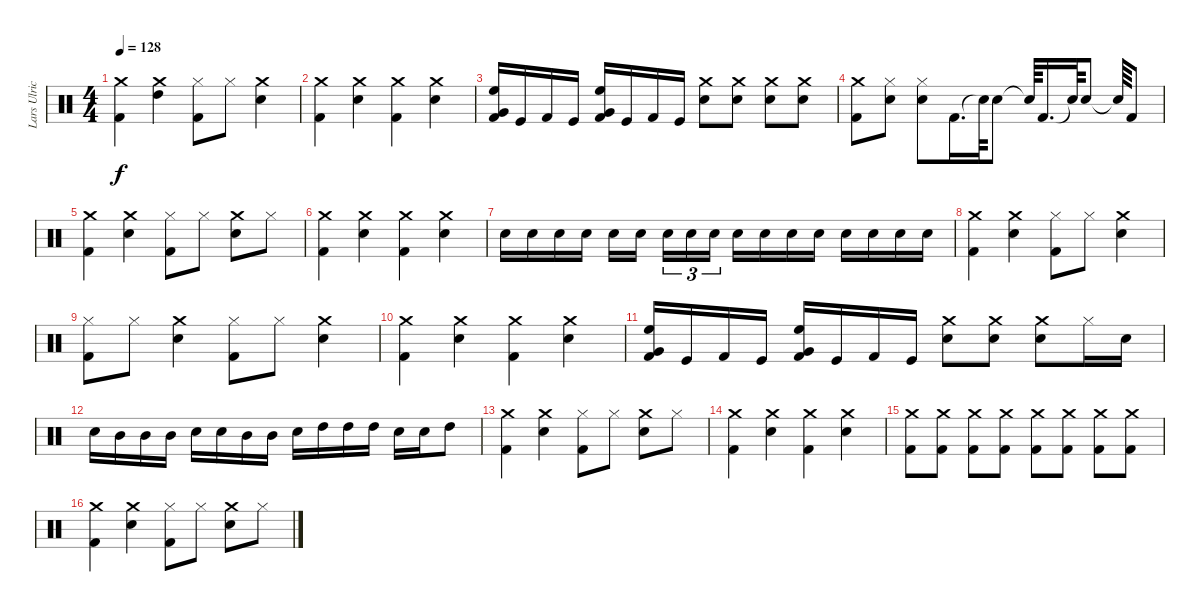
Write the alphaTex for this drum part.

\track ("Lars Ulrich (Drums)" "Lars Ulric") {instrument percussion}
\staff {score}
\articulation defaults
\ts (4 4)
\tempo 128
\clef neutral
\ks c
("Crash medium (hit)" "Kick (hit) 2").4{dy f} ("Crash medium (hit)" "High Tom (hit)").4 ("Kick (hit) 2" "Hi-Hat (closed)").8 "Hi-Hat (closed)".8 ("Crash medium (hit)" "Snare (hit) 2").4 |
("Kick (hit) 2" "Crash medium (hit)").4 ("Snare (hit) 2" "Crash medium (hit)").4 ("Kick (hit) 2" "Crash medium (hit)").4 ("Snare (hit) 2" "Crash medium (hit)").4 |
("Kick (hit) 2" "High Floor Tom (hit)" "Very Low Tom (hit)").16 "Kick (hit)".16 "Kick (hit) 2".16 "Kick (hit)".16 ("Kick (hit) 2" "High Floor Tom (hit)" "Very Low Tom (hit)").16 "Kick (hit)".16 "Kick (hit) 2".16 "Kick (hit)".16 ("Snare (hit) 2" "Crash medium (hit)").8 ("Snare (hit) 2" "Crash medium (hit)").8 ("Snare (hit) 2" "Crash medium (hit)").8 ("Snare (hit) 2" "Crash medium (hit)").8 |
("Kick (hit) 2" "Crash medium (hit)").8 ("Snare (hit) 2" "Hi-Hat (closed)").8 ("Hi-Hat (closed)" "Snare (hit) 2").8 "Kick (hit) 2".16{d} "Snare (hit)"{t}.64 "Snare (hit) 2".8 "Snare (hit)"{t}.64 "Kick (hit) 2".16{d} "Snare (hit)"{t}.64 "Snare (hit) 2".8 "Snare (hit)"{t}.64 "Kick (hit) 2".8 |
("Kick (hit) 2" "Crash medium (hit)").4 ("Snare (hit) 2" "Crash medium (hit)").4 ("Hi-Hat (closed)" "Kick (hit) 2").8 "Hi-Hat (closed)".8 ("Crash medium (hit)" "Snare (hit) 2").8 "Hi-Hat (closed)".8 |
("Kick (hit) 2" "Crash medium (hit)").4 ("Snare (hit) 2" "Crash medium (hit)").4 ("Kick (hit) 2" "Crash medium (hit)").4 ("Snare (hit) 2" "Crash medium (hit)").4 |
"Snare (hit) 2".16 "Snare (hit) 2".16 "Snare (hit) 2".16 "Snare (hit) 2".16 "Snare (hit) 2".16 "Snare (hit) 2".16 "Snare (hit) 2".16{tu (3 2)} "Snare (hit) 2".16{tu (3 2)} "Snare (hit) 2".16{tu (3 2)} "Snare (hit) 2".16 "Snare (hit) 2".16 "Snare (hit) 2".16 "Snare (hit) 2".16 "Snare (hit) 2".16 "Snare (hit) 2".16 "Snare (hit) 2".16 "Snare (hit) 2".16 |
("Kick (hit) 2" "Crash medium (hit)").4 ("Snare (hit) 2" "Crash medium (hit)").4 ("Hi-Hat (closed)" "Kick (hit) 2").8 "Hi-Hat (closed)".8 ("Crash medium (hit)" "Snare (hit) 2").4 |
("Kick (hit) 2" "Hi-Hat (closed)").8 "Hi-Hat (closed)".8 ("Crash medium (hit)" "Snare (hit) 2").4 ("Kick (hit) 2" "Hi-Hat (closed)").8 "Hi-Hat (closed)".8 ("Snare (hit) 2" "Crash medium (hit)").4 |
("Crash medium (hit)" "Kick (hit) 2").4 ("Crash medium (hit)" "Snare (hit) 2").4 ("Crash medium (hit)" "Kick (hit) 2").4 ("Crash medium (hit)" "Snare (hit) 2").4 |
("Kick (hit) 2" "High Floor Tom (hit)" "Very Low Tom (hit)").16 "Kick (hit)".16 "Kick (hit) 2".16 "Kick (hit)".16 ("Kick (hit) 2" "High Floor Tom (hit)" "Very Low Tom (hit)").16 "Kick (hit)".16 "Kick (hit) 2".16 "Kick (hit)".16 ("Crash medium (hit)" "Snare (hit) 2").8 ("Crash medium (hit)" "Snare (hit) 2").8 ("Crash medium (hit)" "Snare (hit) 2").8 "Hi-Hat (closed)".16 "Snare (hit) 2".16 |
"Snare (hit) 2".16 "Mid Tom (hit)".16 "Mid Tom (hit)".16 "Mid Tom (hit)".16 "Snare (hit) 2".16 "Snare (hit) 2".16 "Mid Tom (hit)".16 "Mid Tom (hit)".16 "Snare (hit) 2".16 "High Tom (hit)".16 "High Tom (hit)".16 "High Tom (hit)".16 "Snare (hit) 2".16 "Snare (hit) 2".16 "High Tom (hit)".8 |
("Crash medium (hit)" "Kick (hit) 2").4 ("Crash medium (hit)" "Snare (hit) 2").4 ("Kick (hit) 2" "Hi-Hat (closed)").8 "Hi-Hat (closed)".8 ("Crash medium (hit)" "Snare (hit) 2").8 "Hi-Hat (closed)".8 |
("Kick (hit) 2" "Crash medium (hit)").4 ("Snare (hit) 2" "Crash medium (hit)").4 ("Kick (hit) 2" "Crash medium (hit)").4 ("Snare (hit) 2" "Crash medium (hit)").4 |
("Kick (hit) 2" "Crash medium (hit)").8 ("Kick (hit) 2" "Crash medium (hit)").8 ("Kick (hit) 2" "Crash medium (hit)").8 ("Kick (hit) 2" "Crash medium (hit)").8 ("Kick (hit) 2" "Crash medium (hit)").8 ("Kick (hit) 2" "Crash medium (hit)").8 ("Kick (hit) 2" "Crash medium (hit)").8 ("Kick (hit) 2" "Crash medium (hit)").8 |
("Crash medium (hit)" "Kick (hit) 2").4 ("Crash medium (hit)" "Snare (hit) 2").4 ("Kick (hit) 2" "Hi-Hat (closed)").8 "Hi-Hat (closed)".8 ("Crash medium (hit)" "Snare (hit) 2").8 "Hi-Hat (closed)".8
